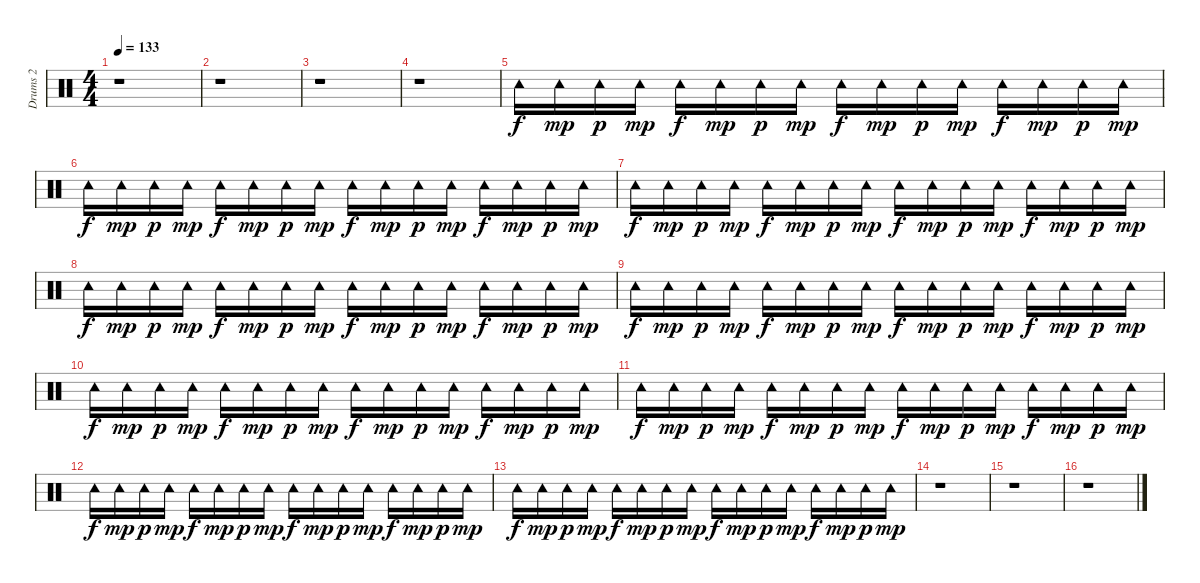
\track ("Drums 2" "Drums 2") {instrument percussion}
\staff {score}
\articulation defaults
\ts (4 4)
\tempo 133
\clef neutral
\ks c
r.1{dy f} |
r.1 |
r.1 |
r.1 |
"Tambourine (hit)".16 "Tambourine (hit)".16{dy mp} "Tambourine (hit)".16{dy p} "Tambourine (hit)".16{dy mp} "Tambourine (hit)".16{dy f} "Tambourine (hit)".16{dy mp} "Tambourine (hit)".16{dy p} "Tambourine (hit)".16{dy mp} "Tambourine (hit)".16{dy f} "Tambourine (hit)".16{dy mp} "Tambourine (hit)".16{dy p} "Tambourine (hit)".16{dy mp} "Tambourine (hit)".16{dy f} "Tambourine (hit)".16{dy mp} "Tambourine (hit)".16{dy p} "Tambourine (hit)".16{dy mp} |
"Tambourine (hit)".16{dy f} "Tambourine (hit)".16{dy mp} "Tambourine (hit)".16{dy p} "Tambourine (hit)".16{dy mp} "Tambourine (hit)".16{dy f} "Tambourine (hit)".16{dy mp} "Tambourine (hit)".16{dy p} "Tambourine (hit)".16{dy mp} "Tambourine (hit)".16{dy f} "Tambourine (hit)".16{dy mp} "Tambourine (hit)".16{dy p} "Tambourine (hit)".16{dy mp} "Tambourine (hit)".16{dy f} "Tambourine (hit)".16{dy mp} "Tambourine (hit)".16{dy p} "Tambourine (hit)".16{dy mp} |
"Tambourine (hit)".16{dy f} "Tambourine (hit)".16{dy mp} "Tambourine (hit)".16{dy p} "Tambourine (hit)".16{dy mp} "Tambourine (hit)".16{dy f} "Tambourine (hit)".16{dy mp} "Tambourine (hit)".16{dy p} "Tambourine (hit)".16{dy mp} "Tambourine (hit)".16{dy f} "Tambourine (hit)".16{dy mp} "Tambourine (hit)".16{dy p} "Tambourine (hit)".16{dy mp} "Tambourine (hit)".16{dy f} "Tambourine (hit)".16{dy mp} "Tambourine (hit)".16{dy p} "Tambourine (hit)".16{dy mp} |
"Tambourine (hit)".16{dy f} "Tambourine (hit)".16{dy mp} "Tambourine (hit)".16{dy p} "Tambourine (hit)".16{dy mp} "Tambourine (hit)".16{dy f} "Tambourine (hit)".16{dy mp} "Tambourine (hit)".16{dy p} "Tambourine (hit)".16{dy mp} "Tambourine (hit)".16{dy f} "Tambourine (hit)".16{dy mp} "Tambourine (hit)".16{dy p} "Tambourine (hit)".16{dy mp} "Tambourine (hit)".16{dy f} "Tambourine (hit)".16{dy mp} "Tambourine (hit)".16{dy p} "Tambourine (hit)".16{dy mp} |
"Tambourine (hit)".16{dy f} "Tambourine (hit)".16{dy mp} "Tambourine (hit)".16{dy p} "Tambourine (hit)".16{dy mp} "Tambourine (hit)".16{dy f} "Tambourine (hit)".16{dy mp} "Tambourine (hit)".16{dy p} "Tambourine (hit)".16{dy mp} "Tambourine (hit)".16{dy f} "Tambourine (hit)".16{dy mp} "Tambourine (hit)".16{dy p} "Tambourine (hit)".16{dy mp} "Tambourine (hit)".16{dy f} "Tambourine (hit)".16{dy mp} "Tambourine (hit)".16{dy p} "Tambourine (hit)".16{dy mp} |
"Tambourine (hit)".16{dy f} "Tambourine (hit)".16{dy mp} "Tambourine (hit)".16{dy p} "Tambourine (hit)".16{dy mp} "Tambourine (hit)".16{dy f} "Tambourine (hit)".16{dy mp} "Tambourine (hit)".16{dy p} "Tambourine (hit)".16{dy mp} "Tambourine (hit)".16{dy f} "Tambourine (hit)".16{dy mp} "Tambourine (hit)".16{dy p} "Tambourine (hit)".16{dy mp} "Tambourine (hit)".16{dy f} "Tambourine (hit)".16{dy mp} "Tambourine (hit)".16{dy p} "Tambourine (hit)".16{dy mp} |
"Tambourine (hit)".16{dy f} "Tambourine (hit)".16{dy mp} "Tambourine (hit)".16{dy p} "Tambourine (hit)".16{dy mp} "Tambourine (hit)".16{dy f} "Tambourine (hit)".16{dy mp} "Tambourine (hit)".16{dy p} "Tambourine (hit)".16{dy mp} "Tambourine (hit)".16{dy f} "Tambourine (hit)".16{dy mp} "Tambourine (hit)".16{dy p} "Tambourine (hit)".16{dy mp} "Tambourine (hit)".16{dy f} "Tambourine (hit)".16{dy mp} "Tambourine (hit)".16{dy p} "Tambourine (hit)".16{dy mp} |
"Tambourine (hit)".16{dy f} "Tambourine (hit)".16{dy mp} "Tambourine (hit)".16{dy p} "Tambourine (hit)".16{dy mp} "Tambourine (hit)".16{dy f} "Tambourine (hit)".16{dy mp} "Tambourine (hit)".16{dy p} "Tambourine (hit)".16{dy mp} "Tambourine (hit)".16{dy f} "Tambourine (hit)".16{dy mp} "Tambourine (hit)".16{dy p} "Tambourine (hit)".16{dy mp} "Tambourine (hit)".16{dy f} "Tambourine (hit)".16{dy mp} "Tambourine (hit)".16{dy p} "Tambourine (hit)".16{dy mp} |
"Tambourine (hit)".16{dy f} "Tambourine (hit)".16{dy mp} "Tambourine (hit)".16{dy p} "Tambourine (hit)".16{dy mp} "Tambourine (hit)".16{dy f} "Tambourine (hit)".16{dy mp} "Tambourine (hit)".16{dy p} "Tambourine (hit)".16{dy mp} "Tambourine (hit)".16{dy f} "Tambourine (hit)".16{dy mp} "Tambourine (hit)".16{dy p} "Tambourine (hit)".16{dy mp} "Tambourine (hit)".16{dy f} "Tambourine (hit)".16{dy mp} "Tambourine (hit)".16{dy p} "Tambourine (hit)".16{dy mp} |
r.1 |
r.1 |
r.1
